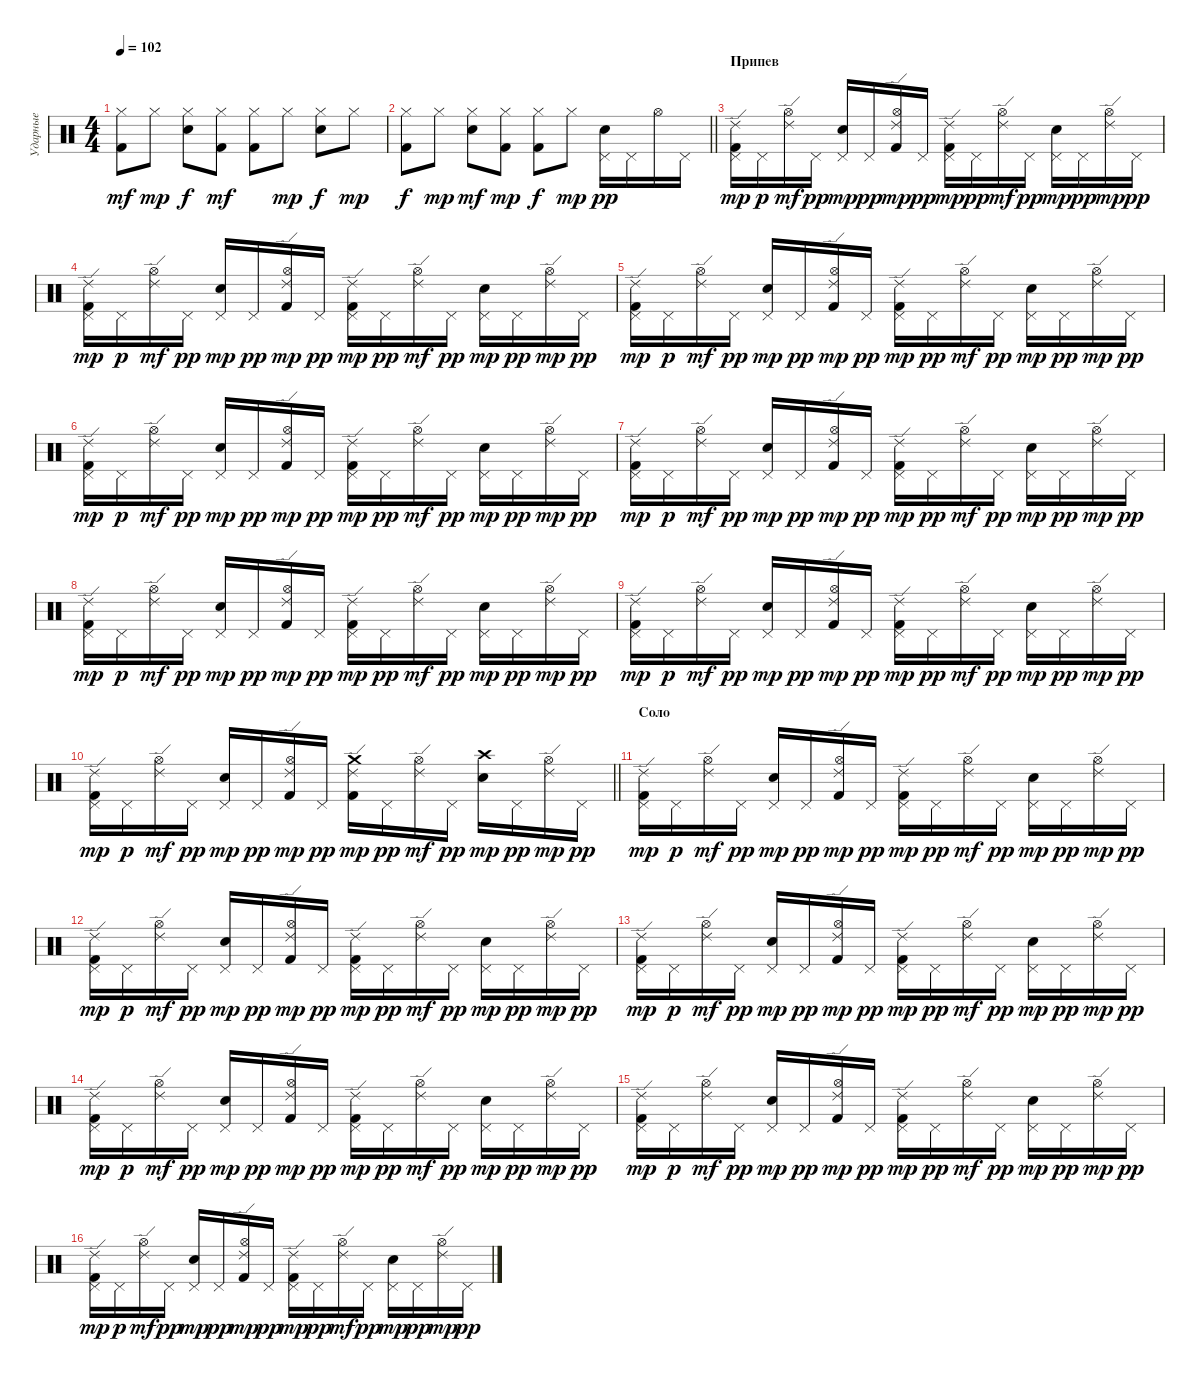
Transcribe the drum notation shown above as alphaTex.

\track ("Ударные" "Ударные") {instrument percussion}
\staff {score}
\articulation defaults
\ts (4 4)
\tempo 102
\clef neutral
\ks c
("Hi-Hat (closed)" "Kick (hit) 2").8{dy mf} "Hi-Hat (closed)".8{dy mp} ("Hi-Hat (closed)" "Snare (hit) 2").8{dy f} ("Hi-Hat (closed)" "Kick (hit) 2").8{dy mf} ("Hi-Hat (closed)" "Kick (hit) 2").8 "Hi-Hat (closed)".8{dy mp} ("Hi-Hat (closed)" "Snare (hit) 2").8{dy f} "Hi-Hat (closed)".8{dy mp} |
\barLineRight lightlight
("Hi-Hat (closed)" "Kick (hit) 2").8{dy f} "Hi-Hat (closed)".8{dy mp} ("Hi-Hat (closed)" "Snare (hit) 2").8{dy mf} ("Hi-Hat (closed)" "Kick (hit) 2").8{dy mp} ("Hi-Hat (closed)" "Kick (hit) 2").8{dy f} "Hi-Hat (closed)".8{dy mp} ("Pedal Hi-Hat (hit)" "Snare (hit) 2").16{dy pp} "Pedal Hi-Hat (hit)".16 "Hi-Hat (open)".16 "Pedal Hi-Hat (hit)".16 |
\section ("" "Припев")
("Pedal Hi-Hat (hit)" "Ride (edge) 2" "Kick (hit) 2").16{dy mp} "Pedal Hi-Hat (hit)".16{dy p} ("Hi-Hat (open)" "Ride (edge) 2").16{dy mf} "Pedal Hi-Hat (hit)".16{dy pp} ("Pedal Hi-Hat (hit)" "Snare (hit) 2").16{dy mp} "Pedal Hi-Hat (hit)".16{dy pp} ("Hi-Hat (open)" "Ride (edge) 2" "Kick (hit) 2").16{dy mp} "Pedal Hi-Hat (hit)".16{dy pp} ("Pedal Hi-Hat (hit)" "Ride (edge) 2" "Kick (hit) 2").16{dy mp} "Pedal Hi-Hat (hit)".16{dy pp} ("Hi-Hat (open)" "Ride (edge) 2").16{dy mf} "Pedal Hi-Hat (hit)".16{dy pp} ("Pedal Hi-Hat (hit)" "Snare (hit) 2").16{dy mp} "Pedal Hi-Hat (hit)".16{dy pp} ("Hi-Hat (open)" "Ride (edge) 2").16{dy mp} "Pedal Hi-Hat (hit)".16{dy pp} |
("Pedal Hi-Hat (hit)" "Ride (edge) 2" "Kick (hit) 2").16{dy mp} "Pedal Hi-Hat (hit)".16{dy p} ("Hi-Hat (open)" "Ride (edge) 2").16{dy mf} "Pedal Hi-Hat (hit)".16{dy pp} ("Pedal Hi-Hat (hit)" "Snare (hit) 2").16{dy mp} "Pedal Hi-Hat (hit)".16{dy pp} ("Hi-Hat (open)" "Ride (edge) 2" "Kick (hit) 2").16{dy mp} "Pedal Hi-Hat (hit)".16{dy pp} ("Pedal Hi-Hat (hit)" "Ride (edge) 2" "Kick (hit) 2").16{dy mp} "Pedal Hi-Hat (hit)".16{dy pp} ("Hi-Hat (open)" "Ride (edge) 2").16{dy mf} "Pedal Hi-Hat (hit)".16{dy pp} ("Pedal Hi-Hat (hit)" "Snare (hit) 2").16{dy mp} "Pedal Hi-Hat (hit)".16{dy pp} ("Hi-Hat (open)" "Ride (edge) 2").16{dy mp} "Pedal Hi-Hat (hit)".16{dy pp} |
("Pedal Hi-Hat (hit)" "Ride (edge) 2" "Kick (hit) 2").16{dy mp} "Pedal Hi-Hat (hit)".16{dy p} ("Hi-Hat (open)" "Ride (edge) 2").16{dy mf} "Pedal Hi-Hat (hit)".16{dy pp} ("Pedal Hi-Hat (hit)" "Snare (hit) 2").16{dy mp} "Pedal Hi-Hat (hit)".16{dy pp} ("Hi-Hat (open)" "Ride (edge) 2" "Kick (hit) 2").16{dy mp} "Pedal Hi-Hat (hit)".16{dy pp} ("Pedal Hi-Hat (hit)" "Ride (edge) 2" "Kick (hit) 2").16{dy mp} "Pedal Hi-Hat (hit)".16{dy pp} ("Hi-Hat (open)" "Ride (edge) 2").16{dy mf} "Pedal Hi-Hat (hit)".16{dy pp} ("Pedal Hi-Hat (hit)" "Snare (hit) 2").16{dy mp} "Pedal Hi-Hat (hit)".16{dy pp} ("Hi-Hat (open)" "Ride (edge) 2").16{dy mp} "Pedal Hi-Hat (hit)".16{dy pp} |
("Pedal Hi-Hat (hit)" "Ride (edge) 2" "Kick (hit) 2").16{dy mp} "Pedal Hi-Hat (hit)".16{dy p} ("Hi-Hat (open)" "Ride (edge) 2").16{dy mf} "Pedal Hi-Hat (hit)".16{dy pp} ("Pedal Hi-Hat (hit)" "Snare (hit) 2").16{dy mp} "Pedal Hi-Hat (hit)".16{dy pp} ("Hi-Hat (open)" "Ride (edge) 2" "Kick (hit) 2").16{dy mp} "Pedal Hi-Hat (hit)".16{dy pp} ("Pedal Hi-Hat (hit)" "Ride (edge) 2" "Kick (hit) 2").16{dy mp} "Pedal Hi-Hat (hit)".16{dy pp} ("Hi-Hat (open)" "Ride (edge) 2").16{dy mf} "Pedal Hi-Hat (hit)".16{dy pp} ("Pedal Hi-Hat (hit)" "Snare (hit) 2").16{dy mp} "Pedal Hi-Hat (hit)".16{dy pp} ("Hi-Hat (open)" "Ride (edge) 2").16{dy mp} "Pedal Hi-Hat (hit)".16{dy pp} |
("Pedal Hi-Hat (hit)" "Ride (edge) 2" "Kick (hit) 2").16{dy mp} "Pedal Hi-Hat (hit)".16{dy p} ("Hi-Hat (open)" "Ride (edge) 2").16{dy mf} "Pedal Hi-Hat (hit)".16{dy pp} ("Pedal Hi-Hat (hit)" "Snare (hit) 2").16{dy mp} "Pedal Hi-Hat (hit)".16{dy pp} ("Hi-Hat (open)" "Ride (edge) 2" "Kick (hit) 2").16{dy mp} "Pedal Hi-Hat (hit)".16{dy pp} ("Pedal Hi-Hat (hit)" "Ride (edge) 2" "Kick (hit) 2").16{dy mp} "Pedal Hi-Hat (hit)".16{dy pp} ("Hi-Hat (open)" "Ride (edge) 2").16{dy mf} "Pedal Hi-Hat (hit)".16{dy pp} ("Pedal Hi-Hat (hit)" "Snare (hit) 2").16{dy mp} "Pedal Hi-Hat (hit)".16{dy pp} ("Hi-Hat (open)" "Ride (edge) 2").16{dy mp} "Pedal Hi-Hat (hit)".16{dy pp} |
("Pedal Hi-Hat (hit)" "Ride (edge) 2" "Kick (hit) 2").16{dy mp} "Pedal Hi-Hat (hit)".16{dy p} ("Hi-Hat (open)" "Ride (edge) 2").16{dy mf} "Pedal Hi-Hat (hit)".16{dy pp} ("Pedal Hi-Hat (hit)" "Snare (hit) 2").16{dy mp} "Pedal Hi-Hat (hit)".16{dy pp} ("Hi-Hat (open)" "Ride (edge) 2" "Kick (hit) 2").16{dy mp} "Pedal Hi-Hat (hit)".16{dy pp} ("Pedal Hi-Hat (hit)" "Ride (edge) 2" "Kick (hit) 2").16{dy mp} "Pedal Hi-Hat (hit)".16{dy pp} ("Hi-Hat (open)" "Ride (edge) 2").16{dy mf} "Pedal Hi-Hat (hit)".16{dy pp} ("Pedal Hi-Hat (hit)" "Snare (hit) 2").16{dy mp} "Pedal Hi-Hat (hit)".16{dy pp} ("Hi-Hat (open)" "Ride (edge) 2").16{dy mp} "Pedal Hi-Hat (hit)".16{dy pp} |
("Pedal Hi-Hat (hit)" "Ride (edge) 2" "Kick (hit) 2").16{dy mp} "Pedal Hi-Hat (hit)".16{dy p} ("Hi-Hat (open)" "Ride (edge) 2").16{dy mf} "Pedal Hi-Hat (hit)".16{dy pp} ("Pedal Hi-Hat (hit)" "Snare (hit) 2").16{dy mp} "Pedal Hi-Hat (hit)".16{dy pp} ("Hi-Hat (open)" "Ride (edge) 2" "Kick (hit) 2").16{dy mp} "Pedal Hi-Hat (hit)".16{dy pp} ("Pedal Hi-Hat (hit)" "Ride (edge) 2" "Kick (hit) 2").16{dy mp} "Pedal Hi-Hat (hit)".16{dy pp} ("Hi-Hat (open)" "Ride (edge) 2").16{dy mf} "Pedal Hi-Hat (hit)".16{dy pp} ("Pedal Hi-Hat (hit)" "Snare (hit) 2").16{dy mp} "Pedal Hi-Hat (hit)".16{dy pp} ("Hi-Hat (open)" "Ride (edge) 2").16{dy mp} "Pedal Hi-Hat (hit)".16{dy pp} |
\barLineRight lightlight
("Pedal Hi-Hat (hit)" "Ride (edge) 2" "Kick (hit) 2").16{dy mp} "Pedal Hi-Hat (hit)".16{dy p} ("Hi-Hat (open)" "Ride (edge) 2").16{dy mf} "Pedal Hi-Hat (hit)".16{dy pp} ("Pedal Hi-Hat (hit)" "Snare (hit) 2").16{dy mp} "Pedal Hi-Hat (hit)".16{dy pp} ("Hi-Hat (open)" "Ride (edge) 2" "Kick (hit) 2").16{dy mp} "Pedal Hi-Hat (hit)".16{dy pp} ("Crash medium (hit)" "Ride (edge) 2" "Kick (hit) 2").16{dy mp} "Pedal Hi-Hat (hit)".16{dy pp} ("Hi-Hat (open)" "Ride (edge) 2").16{dy mf} "Pedal Hi-Hat (hit)".16{dy pp} ("Crash high (hit)" "Snare (hit) 2").16{dy mp} "Pedal Hi-Hat (hit)".16{dy pp} ("Hi-Hat (open)" "Ride (edge) 2").16{dy mp} "Pedal Hi-Hat (hit)".16{dy pp} |
\section ("" "Соло")
("Pedal Hi-Hat (hit)" "Ride (edge) 2" "Kick (hit) 2").16{dy mp} "Pedal Hi-Hat (hit)".16{dy p} ("Hi-Hat (open)" "Ride (edge) 2").16{dy mf} "Pedal Hi-Hat (hit)".16{dy pp} ("Pedal Hi-Hat (hit)" "Snare (hit) 2").16{dy mp} "Pedal Hi-Hat (hit)".16{dy pp} ("Hi-Hat (open)" "Ride (edge) 2" "Kick (hit) 2").16{dy mp} "Pedal Hi-Hat (hit)".16{dy pp} ("Pedal Hi-Hat (hit)" "Ride (edge) 2" "Kick (hit) 2").16{dy mp} "Pedal Hi-Hat (hit)".16{dy pp} ("Hi-Hat (open)" "Ride (edge) 2").16{dy mf} "Pedal Hi-Hat (hit)".16{dy pp} ("Pedal Hi-Hat (hit)" "Snare (hit) 2").16{dy mp} "Pedal Hi-Hat (hit)".16{dy pp} ("Hi-Hat (open)" "Ride (edge) 2").16{dy mp} "Pedal Hi-Hat (hit)".16{dy pp} |
("Pedal Hi-Hat (hit)" "Ride (edge) 2" "Kick (hit) 2").16{dy mp} "Pedal Hi-Hat (hit)".16{dy p} ("Hi-Hat (open)" "Ride (edge) 2").16{dy mf} "Pedal Hi-Hat (hit)".16{dy pp} ("Pedal Hi-Hat (hit)" "Snare (hit) 2").16{dy mp} "Pedal Hi-Hat (hit)".16{dy pp} ("Hi-Hat (open)" "Ride (edge) 2" "Kick (hit) 2").16{dy mp} "Pedal Hi-Hat (hit)".16{dy pp} ("Pedal Hi-Hat (hit)" "Ride (edge) 2" "Kick (hit) 2").16{dy mp} "Pedal Hi-Hat (hit)".16{dy pp} ("Hi-Hat (open)" "Ride (edge) 2").16{dy mf} "Pedal Hi-Hat (hit)".16{dy pp} ("Pedal Hi-Hat (hit)" "Snare (hit) 2").16{dy mp} "Pedal Hi-Hat (hit)".16{dy pp} ("Hi-Hat (open)" "Ride (edge) 2").16{dy mp} "Pedal Hi-Hat (hit)".16{dy pp} |
("Pedal Hi-Hat (hit)" "Ride (edge) 2" "Kick (hit) 2").16{dy mp} "Pedal Hi-Hat (hit)".16{dy p} ("Hi-Hat (open)" "Ride (edge) 2").16{dy mf} "Pedal Hi-Hat (hit)".16{dy pp} ("Pedal Hi-Hat (hit)" "Snare (hit) 2").16{dy mp} "Pedal Hi-Hat (hit)".16{dy pp} ("Hi-Hat (open)" "Ride (edge) 2" "Kick (hit) 2").16{dy mp} "Pedal Hi-Hat (hit)".16{dy pp} ("Pedal Hi-Hat (hit)" "Ride (edge) 2" "Kick (hit) 2").16{dy mp} "Pedal Hi-Hat (hit)".16{dy pp} ("Hi-Hat (open)" "Ride (edge) 2").16{dy mf} "Pedal Hi-Hat (hit)".16{dy pp} ("Pedal Hi-Hat (hit)" "Snare (hit) 2").16{dy mp} "Pedal Hi-Hat (hit)".16{dy pp} ("Hi-Hat (open)" "Ride (edge) 2").16{dy mp} "Pedal Hi-Hat (hit)".16{dy pp} |
("Pedal Hi-Hat (hit)" "Ride (edge) 2" "Kick (hit) 2").16{dy mp} "Pedal Hi-Hat (hit)".16{dy p} ("Hi-Hat (open)" "Ride (edge) 2").16{dy mf} "Pedal Hi-Hat (hit)".16{dy pp} ("Pedal Hi-Hat (hit)" "Snare (hit) 2").16{dy mp} "Pedal Hi-Hat (hit)".16{dy pp} ("Hi-Hat (open)" "Ride (edge) 2" "Kick (hit) 2").16{dy mp} "Pedal Hi-Hat (hit)".16{dy pp} ("Pedal Hi-Hat (hit)" "Ride (edge) 2" "Kick (hit) 2").16{dy mp} "Pedal Hi-Hat (hit)".16{dy pp} ("Hi-Hat (open)" "Ride (edge) 2").16{dy mf} "Pedal Hi-Hat (hit)".16{dy pp} ("Pedal Hi-Hat (hit)" "Snare (hit) 2").16{dy mp} "Pedal Hi-Hat (hit)".16{dy pp} ("Hi-Hat (open)" "Ride (edge) 2").16{dy mp} "Pedal Hi-Hat (hit)".16{dy pp} |
("Pedal Hi-Hat (hit)" "Ride (edge) 2" "Kick (hit) 2").16{dy mp} "Pedal Hi-Hat (hit)".16{dy p} ("Hi-Hat (open)" "Ride (edge) 2").16{dy mf} "Pedal Hi-Hat (hit)".16{dy pp} ("Pedal Hi-Hat (hit)" "Snare (hit) 2").16{dy mp} "Pedal Hi-Hat (hit)".16{dy pp} ("Hi-Hat (open)" "Ride (edge) 2" "Kick (hit) 2").16{dy mp} "Pedal Hi-Hat (hit)".16{dy pp} ("Pedal Hi-Hat (hit)" "Ride (edge) 2" "Kick (hit) 2").16{dy mp} "Pedal Hi-Hat (hit)".16{dy pp} ("Hi-Hat (open)" "Ride (edge) 2").16{dy mf} "Pedal Hi-Hat (hit)".16{dy pp} ("Pedal Hi-Hat (hit)" "Snare (hit) 2").16{dy mp} "Pedal Hi-Hat (hit)".16{dy pp} ("Hi-Hat (open)" "Ride (edge) 2").16{dy mp} "Pedal Hi-Hat (hit)".16{dy pp} |
("Pedal Hi-Hat (hit)" "Ride (edge) 2" "Kick (hit) 2").16{dy mp} "Pedal Hi-Hat (hit)".16{dy p} ("Hi-Hat (open)" "Ride (edge) 2").16{dy mf} "Pedal Hi-Hat (hit)".16{dy pp} ("Pedal Hi-Hat (hit)" "Snare (hit) 2").16{dy mp} "Pedal Hi-Hat (hit)".16{dy pp} ("Hi-Hat (open)" "Ride (edge) 2" "Kick (hit) 2").16{dy mp} "Pedal Hi-Hat (hit)".16{dy pp} ("Pedal Hi-Hat (hit)" "Ride (edge) 2" "Kick (hit) 2").16{dy mp} "Pedal Hi-Hat (hit)".16{dy pp} ("Hi-Hat (open)" "Ride (edge) 2").16{dy mf} "Pedal Hi-Hat (hit)".16{dy pp} ("Pedal Hi-Hat (hit)" "Snare (hit) 2").16{dy mp} "Pedal Hi-Hat (hit)".16{dy pp} ("Hi-Hat (open)" "Ride (edge) 2").16{dy mp} "Pedal Hi-Hat (hit)".16{dy pp}
